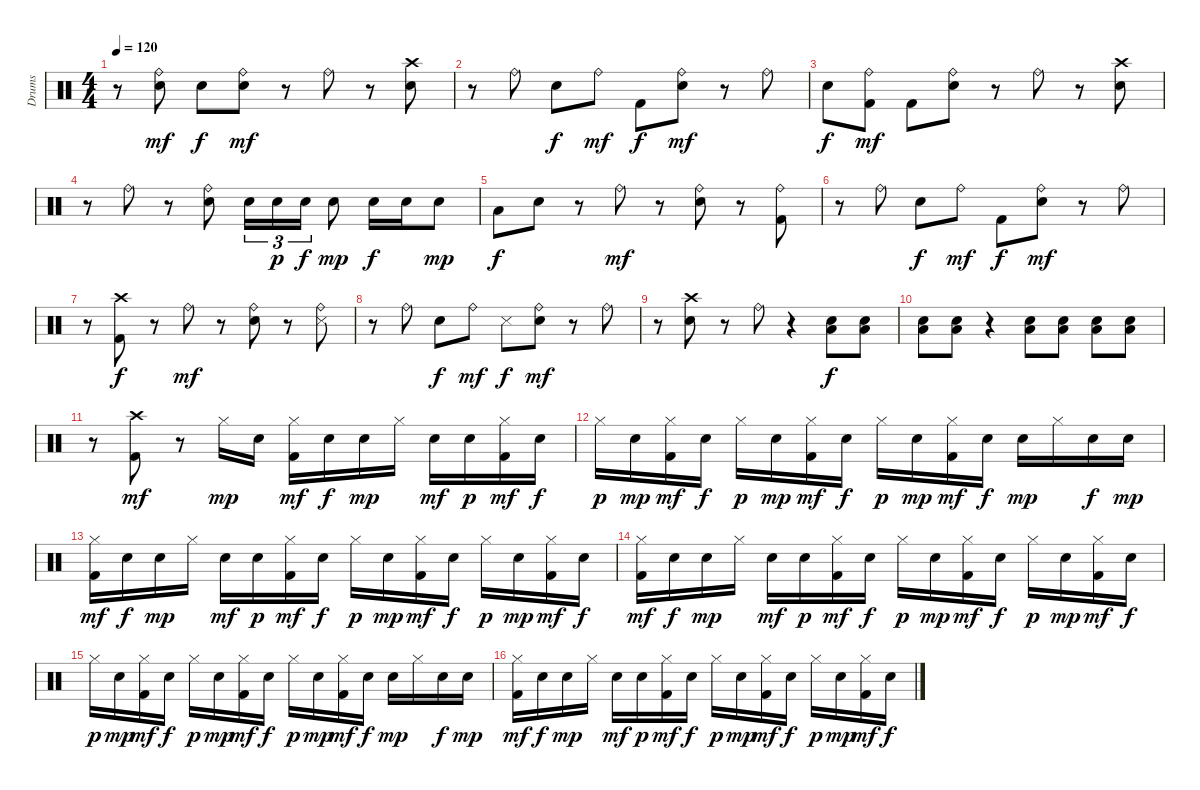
\track ("Drums" "Drums") {instrument percussion}
\staff {score}
\articulation defaults
\ts (4 4)
\tempo 120
\clef neutral
\ks c
r.8{dy mf} ("Electric Snare (hit)" "Ride (bell)").8 "Electric Snare (hit)".8{dy f} ("Electric Snare (hit)" "Ride (bell)").8{dy mf} r.8 "Ride (bell)".8 r.8 ("Electric Snare (hit)" "Crash high (hit)").8 |
r.8 "Ride (bell)".8 "Electric Snare (hit)".8{dy f} "Ride (bell)".8{dy mf} "Kick (hit) 2".8{dy f} ("Electric Snare (hit)" "Ride (bell)").8{dy mf} r.8 "Ride (bell)".8 |
"Electric Snare (hit)".8{dy f} ("Kick (hit) 2" "Ride (bell)").8{dy mf} "Kick (hit) 2".8 ("Electric Snare (hit)" "Ride (bell)").8 r.8 "Ride (bell)".8 r.8 ("Electric Snare (hit)" "Crash high (hit)").8 |
r.8 "Ride (bell)".8 r.8 ("Electric Snare (hit)" "Ride (bell)").8 "Electric Snare (hit)".16{tu (3 2)} "Electric Snare (hit)".16{tu (3 2) dy p} "Electric Snare (hit)".16{tu (3 2) dy f} "Electric Snare (hit)".8{dy mp} "Electric Snare (hit)".16{dy f} "Electric Snare (hit)".16 "Electric Snare (hit)".8{dy mp} |
"Low Tom (hit)".8{dy f} "Electric Snare (hit)".8 r.8 "Ride (bell)".8{dy mf} r.8 ("Electric Snare (hit)" "Ride (bell)").8 r.8 ("Kick (hit) 2" "Ride (bell)").8 |
r.8 "Ride (bell)".8 "Electric Snare (hit)".8{dy f} "Ride (bell)".8{dy mf} "Kick (hit) 2".8{dy f} ("Electric Snare (hit)" "Ride (bell)").8{dy mf} r.8 "Ride (bell)".8 |
r.8 ("Kick (hit) 2" "Crash high (hit)").8{dy f} r.8 "Ride (bell)".8{dy mf} r.8 ("Electric Snare (hit)" "Ride (bell)").8 r.8 ("Snare (side stick) 3" "Ride (bell)").8 |
r.8 "Ride (bell)".8 "Electric Snare (hit)".8{dy f} "Ride (bell)".8{dy mf} "Snare (side stick) 3".8{dy f} ("Electric Snare (hit)" "Ride (bell)").8{dy mf} r.8 "Ride (bell)".8 |
r.8 ("Electric Snare (hit)" "Crash high (hit)").8 r.8 "Ride (bell)".8 r.4 ("Electric Snare (hit)" "Low Floor Tom (hit)").8{dy f} ("Electric Snare (hit)" "Low Floor Tom (hit)").8 |
("Electric Snare (hit)" "Low Floor Tom (hit)").8 ("Electric Snare (hit)" "Low Floor Tom (hit)").8 r.4 ("Electric Snare (hit)" "Low Floor Tom (hit)").8 ("Electric Snare (hit)" "Low Floor Tom (hit)").8 ("Electric Snare (hit)" "Low Floor Tom (hit)").8 ("Electric Snare (hit)" "Low Floor Tom (hit)").8 |
r.8 ("Crash high (hit)" "Kick (hit) 2").8{dy mf} r.8 "Hi-Hat (closed)".16{dy mp} "Electric Snare (hit)".16 ("Kick (hit) 2" "Hi-Hat (closed)").16{dy mf} "Electric Snare (hit)".16{dy f} "Electric Snare (hit)".16{dy mp} "Hi-Hat (closed)".16 "Electric Snare (hit)".16{dy mf} "Electric Snare (hit)".16{dy p} ("Kick (hit) 2" "Hi-Hat (closed)").16{dy mf} "Electric Snare (hit)".16{dy f} |
"Hi-Hat (closed)".16{dy p} "Electric Snare (hit)".16{dy mp} ("Kick (hit) 2" "Hi-Hat (closed)").16{dy mf} "Electric Snare (hit)".16{dy f} "Hi-Hat (closed)".16{dy p} "Electric Snare (hit)".16{dy mp} ("Kick (hit) 2" "Hi-Hat (closed)").16{dy mf} "Electric Snare (hit)".16{dy f} "Hi-Hat (closed)".16{dy p} "Electric Snare (hit)".16{dy mp} ("Kick (hit) 2" "Hi-Hat (closed)").16{dy mf} "Electric Snare (hit)".16{dy f} "Electric Snare (hit)".16{dy mp} "Hi-Hat (closed)".16 "Electric Snare (hit)".16{dy f} "Electric Snare (hit)".16{dy mp} |
("Kick (hit) 2" "Hi-Hat (closed)").16{dy mf} "Electric Snare (hit)".16{dy f} "Electric Snare (hit)".16{dy mp} "Hi-Hat (closed)".16 "Electric Snare (hit)".16{dy mf} "Electric Snare (hit)".16{dy p} ("Kick (hit) 2" "Hi-Hat (closed)").16{dy mf} "Electric Snare (hit)".16{dy f} "Hi-Hat (closed)".16{dy p} "Electric Snare (hit)".16{dy mp} ("Kick (hit) 2" "Hi-Hat (closed)").16{dy mf} "Electric Snare (hit)".16{dy f} "Hi-Hat (closed)".16{dy p} "Electric Snare (hit)".16{dy mp} ("Kick (hit) 2" "Hi-Hat (closed)").16{dy mf} "Electric Snare (hit)".16{dy f} |
("Kick (hit) 2" "Hi-Hat (closed)").16{dy mf} "Electric Snare (hit)".16{dy f} "Electric Snare (hit)".16{dy mp} "Hi-Hat (closed)".16 "Electric Snare (hit)".16{dy mf} "Electric Snare (hit)".16{dy p} ("Kick (hit) 2" "Hi-Hat (closed)").16{dy mf} "Electric Snare (hit)".16{dy f} "Hi-Hat (closed)".16{dy p} "Electric Snare (hit)".16{dy mp} ("Kick (hit) 2" "Hi-Hat (closed)").16{dy mf} "Electric Snare (hit)".16{dy f} "Hi-Hat (closed)".16{dy p} "Electric Snare (hit)".16{dy mp} ("Kick (hit) 2" "Hi-Hat (closed)").16{dy mf} "Electric Snare (hit)".16{dy f} |
"Hi-Hat (closed)".16{dy p} "Electric Snare (hit)".16{dy mp} ("Kick (hit) 2" "Hi-Hat (closed)").16{dy mf} "Electric Snare (hit)".16{dy f} "Hi-Hat (closed)".16{dy p} "Electric Snare (hit)".16{dy mp} ("Kick (hit) 2" "Hi-Hat (closed)").16{dy mf} "Electric Snare (hit)".16{dy f} "Hi-Hat (closed)".16{dy p} "Electric Snare (hit)".16{dy mp} ("Kick (hit) 2" "Hi-Hat (closed)").16{dy mf} "Electric Snare (hit)".16{dy f} "Electric Snare (hit)".16{dy mp} "Hi-Hat (closed)".16 "Electric Snare (hit)".16{dy f} "Electric Snare (hit)".16{dy mp} |
("Kick (hit) 2" "Hi-Hat (closed)").16{dy mf} "Electric Snare (hit)".16{dy f} "Electric Snare (hit)".16{dy mp} "Hi-Hat (closed)".16 "Electric Snare (hit)".16{dy mf} "Electric Snare (hit)".16{dy p} ("Kick (hit) 2" "Hi-Hat (closed)").16{dy mf} "Electric Snare (hit)".16{dy f} "Hi-Hat (closed)".16{dy p} "Electric Snare (hit)".16{dy mp} ("Kick (hit) 2" "Hi-Hat (closed)").16{dy mf} "Electric Snare (hit)".16{dy f} "Hi-Hat (closed)".16{dy p} "Electric Snare (hit)".16{dy mp} ("Kick (hit) 2" "Hi-Hat (closed)").16{dy mf} "Electric Snare (hit)".16{dy f}
